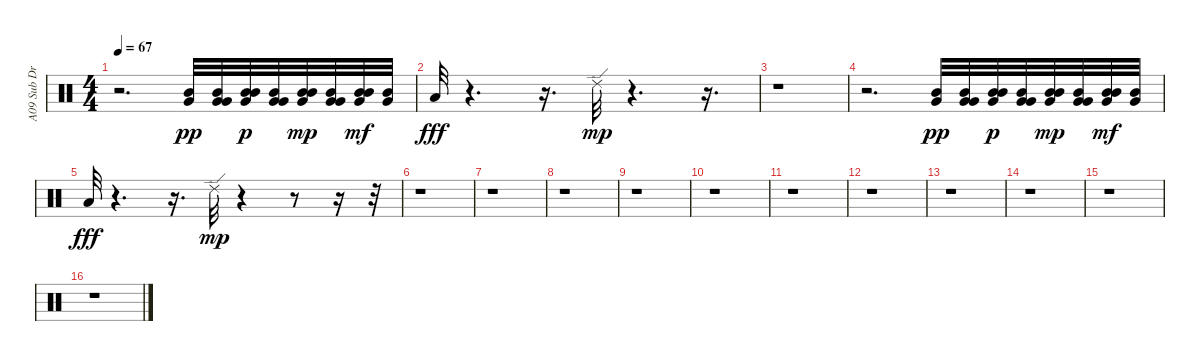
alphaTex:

\track ("A09 Sub Drums" "A09 Sub Dr") {instrument percussion}
\staff {score}
\articulation defaults
\ts (4 4)
\tempo 67
\clef neutral
\ks c
r.2{d dy mp} ("Very Low Tom (hit)" "Mid Tom (hit)").32{dy pp} ("Very Low Tom (hit)" "Mid Tom (hit)" "Very Low Tom (hit)").32 ("Mid Tom (hit)" "Very Low Tom (hit)" "Mid Tom (hit)").32{dy p} ("Very Low Tom (hit)" "Mid Tom (hit)" "Very Low Tom (hit)").32 ("Mid Tom (hit)" "Very Low Tom (hit)" "Mid Tom (hit)").32{dy mp} ("Very Low Tom (hit)" "Mid Tom (hit)" "Very Low Tom (hit)").32 ("Mid Tom (hit)" "Very Low Tom (hit)" "Mid Tom (hit)").32{dy mf} ("Very Low Tom (hit)" "Mid Tom (hit)").32 |
"Low Floor Tom (hit)".32{dy fff} r.4{d} r.16{d} "Ride (edge) 2".32{dy mp} r.4{d} r.16{d} |
r.1 |
r.2{d} ("Very Low Tom (hit)" "Mid Tom (hit)").32{dy pp} ("Very Low Tom (hit)" "Mid Tom (hit)" "Very Low Tom (hit)").32 ("Mid Tom (hit)" "Very Low Tom (hit)" "Mid Tom (hit)").32{dy p} ("Very Low Tom (hit)" "Mid Tom (hit)" "Very Low Tom (hit)").32 ("Mid Tom (hit)" "Very Low Tom (hit)" "Mid Tom (hit)").32{dy mp} ("Very Low Tom (hit)" "Mid Tom (hit)" "Very Low Tom (hit)").32 ("Mid Tom (hit)" "Very Low Tom (hit)" "Mid Tom (hit)").32{dy mf} ("Very Low Tom (hit)" "Mid Tom (hit)").32 |
"Low Floor Tom (hit)".32{dy fff} r.4{d} r.16{d} "Ride (edge) 2".32{dy mp} r.4 r.8 r.16 r.32 |
r.1 |
r.1 |
r.1 |
r.1 |
r.1 |
r.1 |
r.1 |
r.1 |
r.1 |
r.1 |
r.1
